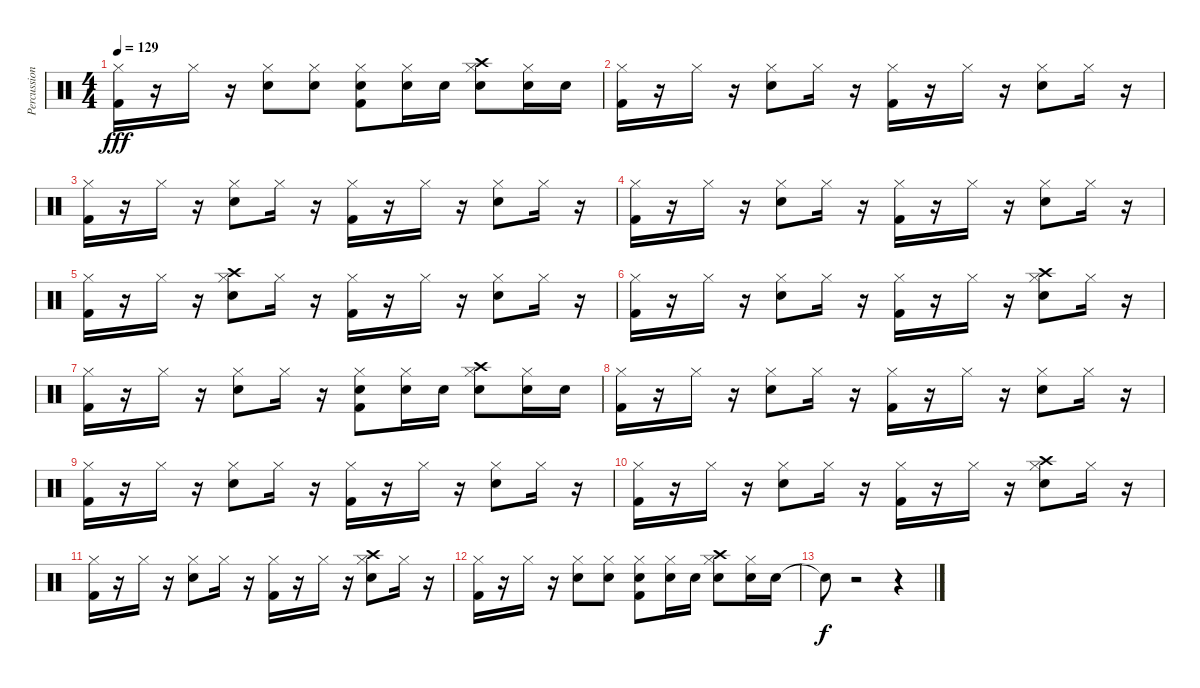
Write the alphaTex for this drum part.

\track ("Percussion" "Percussion") {instrument percussion}
\staff {score}
\articulation defaults
\ts (4 4)
\tempo 129
\clef neutral
\ks c
("Kick (hit) 2" "Hi-Hat (closed)").16{dy fff} r.16 "Hi-Hat (closed)".16 r.16 ("Snare (hit) 2" "Hi-Hat (closed)").8 ("Snare (hit) 2" "Hi-Hat (closed)").8 ("Kick (hit) 2" "Snare (hit) 2" "Hi-Hat (closed)").8 ("Snare (hit) 2" "Hi-Hat (closed)").16 "Snare (hit) 2".16 ("Snare (hit) 2" "Hi-Hat (closed)" "Crash high (hit)").8 ("Snare (hit) 2" "Hi-Hat (closed)").16 "Snare (hit) 2".16 |
("Kick (hit) 2" "Hi-Hat (closed)").16 r.16 "Hi-Hat (closed)".16 r.16 ("Snare (hit) 2" "Hi-Hat (closed)").8 "Hi-Hat (closed)".16 r.16 ("Kick (hit) 2" "Hi-Hat (closed)").16 r.16 "Hi-Hat (closed)".16 r.16 ("Snare (hit) 2" "Hi-Hat (closed)").8 "Hi-Hat (closed)".16 r.16 |
("Kick (hit) 2" "Hi-Hat (closed)").16 r.16 "Hi-Hat (closed)".16 r.16 ("Snare (hit) 2" "Hi-Hat (closed)").8 "Hi-Hat (closed)".16 r.16 ("Kick (hit) 2" "Hi-Hat (closed)").16 r.16 "Hi-Hat (closed)".16 r.16 ("Snare (hit) 2" "Hi-Hat (closed)").8 "Hi-Hat (closed)".16 r.16 |
("Kick (hit) 2" "Hi-Hat (closed)").16 r.16 "Hi-Hat (closed)".16 r.16 ("Snare (hit) 2" "Hi-Hat (closed)").8 "Hi-Hat (closed)".16 r.16 ("Kick (hit) 2" "Hi-Hat (closed)").16 r.16 "Hi-Hat (closed)".16 r.16 ("Snare (hit) 2" "Hi-Hat (closed)").8 "Hi-Hat (closed)".16 r.16 |
("Kick (hit) 2" "Hi-Hat (closed)").16 r.16 "Hi-Hat (closed)".16 r.16 ("Snare (hit) 2" "Hi-Hat (closed)" "Crash high (hit)").8 "Hi-Hat (closed)".16 r.16 ("Kick (hit) 2" "Hi-Hat (closed)").16 r.16 "Hi-Hat (closed)".16 r.16 ("Snare (hit) 2" "Hi-Hat (closed)").8 "Hi-Hat (closed)".16 r.16 |
("Kick (hit) 2" "Hi-Hat (closed)").16 r.16 "Hi-Hat (closed)".16 r.16 ("Snare (hit) 2" "Hi-Hat (closed)").8 "Hi-Hat (closed)".16 r.16 ("Kick (hit) 2" "Hi-Hat (closed)").16 r.16 "Hi-Hat (closed)".16 r.16 ("Snare (hit) 2" "Hi-Hat (closed)" "Crash high (hit)").8 "Hi-Hat (closed)".16 r.16 |
("Kick (hit) 2" "Hi-Hat (closed)").16 r.16 "Hi-Hat (closed)".16 r.16 ("Snare (hit) 2" "Hi-Hat (closed)").8 "Hi-Hat (closed)".16 r.16 ("Kick (hit) 2" "Snare (hit) 2" "Hi-Hat (closed)").8 ("Snare (hit) 2" "Hi-Hat (closed)").16 "Snare (hit) 2".16 ("Snare (hit) 2" "Hi-Hat (closed)" "Crash high (hit)").8 ("Snare (hit) 2" "Hi-Hat (closed)").16 "Snare (hit) 2".16 |
("Kick (hit) 2" "Hi-Hat (closed)").16{volume 10} r.16 "Hi-Hat (closed)".16{volume 10} r.16 ("Snare (hit) 2" "Hi-Hat (closed)").8{volume 10} "Hi-Hat (closed)".16{volume 9} r.16 ("Kick (hit) 2" "Hi-Hat (closed)").16{volume 9} r.16 "Hi-Hat (closed)".16{volume 9} r.16 ("Snare (hit) 2" "Hi-Hat (closed)").8{volume 9} "Hi-Hat (closed)".16{volume 8} r.16 |
("Kick (hit) 2" "Hi-Hat (closed)").16{volume 8} r.16 "Hi-Hat (closed)".16{volume 8} r.16 ("Snare (hit) 2" "Hi-Hat (closed)").8{volume 8} "Hi-Hat (closed)".16{volume 7} r.16 ("Kick (hit) 2" "Hi-Hat (closed)").16{volume 7} r.16 "Hi-Hat (closed)".16{volume 6} r.16 ("Snare (hit) 2" "Hi-Hat (closed)").8{volume 6} "Hi-Hat (closed)".16{volume 6} r.16 |
("Kick (hit) 2" "Hi-Hat (closed)").16{volume 5} r.16 "Hi-Hat (closed)".16{volume 5} r.16 ("Snare (hit) 2" "Hi-Hat (closed)").8{volume 4} "Hi-Hat (closed)".16{volume 4} r.16 ("Kick (hit) 2" "Hi-Hat (closed)").16{volume 4} r.16 "Hi-Hat (closed)".16{volume 4} r.16 ("Snare (hit) 2" "Hi-Hat (closed)" "Crash high (hit)").8{volume 3} "Hi-Hat (closed)".16{volume 3} r.16 |
("Kick (hit) 2" "Hi-Hat (closed)").16{volume 3} r.16 "Hi-Hat (closed)".16{volume 3} r.16 ("Snare (hit) 2" "Hi-Hat (closed)").8{volume 2} "Hi-Hat (closed)".16{volume 2} r.16 ("Kick (hit) 2" "Hi-Hat (closed)").16{volume 2} r.16 "Hi-Hat (closed)".16{volume 2} r.16 ("Snare (hit) 2" "Hi-Hat (closed)" "Crash high (hit)").8{volume 2} "Hi-Hat (closed)".16 r.16 |
("Kick (hit) 2" "Hi-Hat (closed)").16 r.16 "Hi-Hat (closed)".16{volume 1} r.16 ("Snare (hit) 2" "Hi-Hat (closed)").8{volume 1} ("Snare (hit) 2" "Hi-Hat (closed)").8{volume 0} ("Kick (hit) 2" "Snare (hit) 2" "Hi-Hat (closed)").8{volume 0} ("Snare (hit) 2" "Hi-Hat (closed)").16 "Snare (hit) 2".16 ("Snare (hit) 2" "Hi-Hat (closed)" "Crash high (hit)").8 ("Snare (hit) 2" "Hi-Hat (closed)").16 "Snare (hit) 2".16 |
"Snare (hit)"{t}.8{dy f} r.2 r.4
